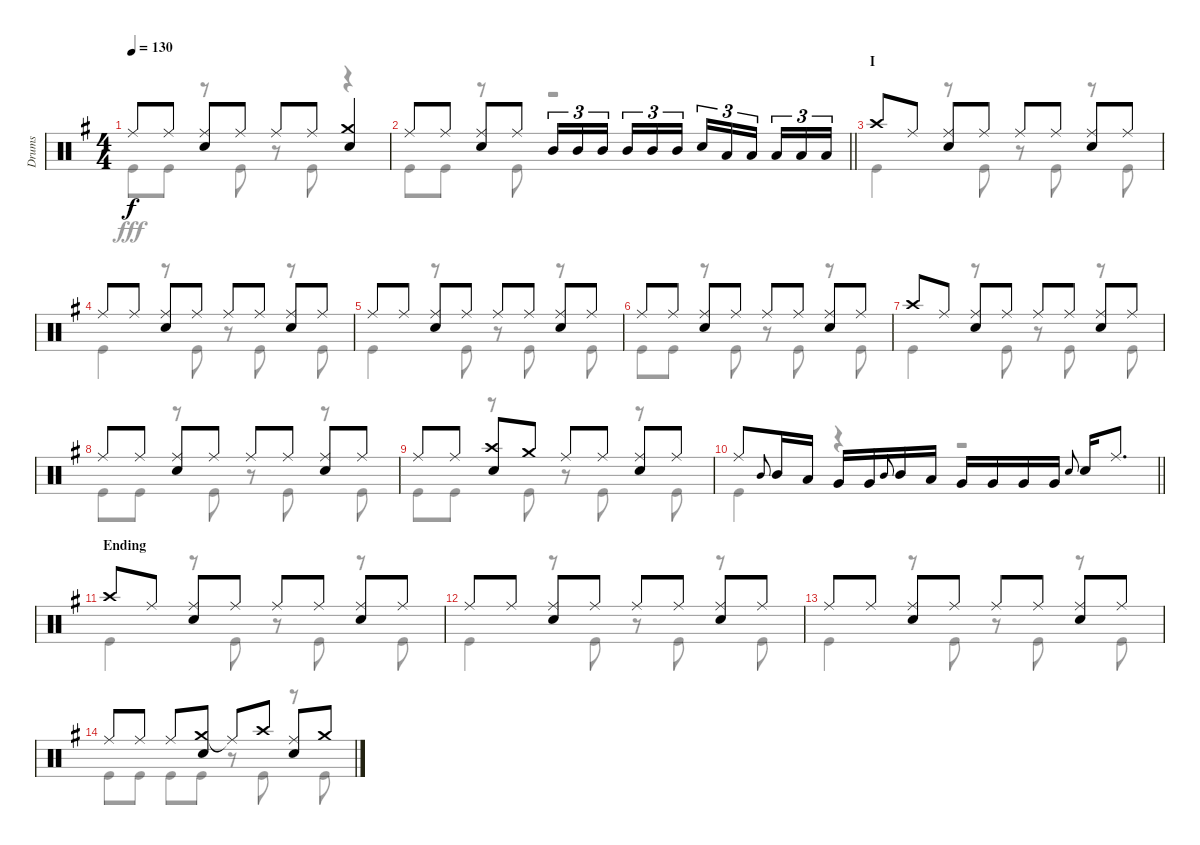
\track ("Drums" "Drums") {instrument percussion}
\staff {score}
\articulation defaults
\voice
\ts (4 4)
\tempo 130
\clef neutral
\ks g "Ride (middle)".8{dy f} "Ride (middle)".8
("Ride (middle)" "Snare (hit) 2").8 "Ride (middle)".8 "Ride (middle)".8 "Ride (middle)".8 ("Crash medium (hit)" "Snare (hit) 2").4 |
\barLineRight lightlight "Ride (middle)".8 "Ride (middle)".8
("Ride (middle)" "Snare (hit) 2").8 "Ride (middle)".8 "Mid Tom (hit)".16{tu (3 2)} "Mid Tom (hit)".16{tu (3 2)} "Mid Tom (hit)".16{tu (3 2) beam splitsecondary} "Mid Tom (hit)".16{tu (3 2)} "Mid Tom (hit)".16{tu (3 2)} "Mid Tom (hit)".16{tu (3 2)} "Snare (hit) 2".16{tu (3 2)} "Low Tom (hit)".16{tu (3 2)} "Low Tom (hit)".16{tu (3 2) beam splitsecondary} "Low Tom (hit)".16{tu (3 2)} "Low Tom (hit)".16{tu (3 2)} "Low Tom (hit)".16{tu (3 2)} |
\section ("" "I")
"Crash high (hit)".8 "Ride (middle)".8 ("Ride (middle)" "Snare (hit) 2").8 "Ride (middle)".8 "Ride (middle)".8 "Ride (middle)".8 ("Ride (middle)" "Snare (hit) 2").8 "Ride (middle)".8 |
"Ride (middle)".8 "Ride (middle)".8 ("Ride (middle)" "Snare (hit) 2").8 "Ride (middle)".8 "Ride (middle)".8 "Ride (middle)".8 ("Ride (middle)" "Snare (hit) 2").8 "Ride (middle)".8 |
"Ride (middle)".8 "Ride (middle)".8 ("Ride (middle)" "Snare (hit) 2").8 "Ride (middle)".8 "Ride (middle)".8 "Ride (middle)".8 ("Ride (middle)" "Snare (hit) 2").8 "Ride (middle)".8 |
"Ride (middle)".8 "Ride (middle)".8 ("Ride (middle)" "Snare (hit) 2").8 "Ride (middle)".8 "Ride (middle)".8 "Ride (middle)".8 ("Ride (middle)" "Snare (hit) 2").8 "Ride (middle)".8 |
"Crash high (hit)".8 "Ride (middle)".8 ("Ride (middle)" "Snare (hit) 2").8 "Ride (middle)".8 "Ride (middle)".8 "Ride (middle)".8 ("Ride (middle)" "Snare (hit) 2").8 "Ride (middle)".8 |
"Ride (middle)".8 "Ride (middle)".8 ("Ride (middle)" "Snare (hit) 2").8 "Ride (middle)".8 "Ride (middle)".8 "Ride (middle)".8 ("Ride (middle)" "Snare (hit) 2").8 "Ride (middle)".8 |
"Ride (middle)".8 "Ride (middle)".8 ("Crash high (hit)" "Snare (hit) 2").8 "Crash medium (hit)".8 "Ride (middle)".8 "Ride (middle)".8 ("Ride (middle)" "Snare (hit) 2").8 "Ride (middle)".8 |
\barLineRight lightlight "Ride (middle)".8 "Mid Tom (hit)".8{gr onbeat} "Mid Tom (hit)".16 "Low Tom (hit)".16 "Very Low Tom (hit)".16 "Very Low Tom (hit)".16 "Mid Tom (hit)".8{gr onbeat} "Mid Tom (hit)".16 "Low Tom (hit)".16 "Very Low Tom (hit)".16 "Very Low Tom (hit)".16 "Very Low Tom (hit)".16 "Very Low Tom (hit)".16 "Snare (hit) 2".8{gr onbeat} "Snare (hit) 2".16 "Ride (middle)".8{d}
|
\section ("" "Ending")
"Crash high (hit)".8 "Ride (middle)".8 ("Ride (middle)" "Snare (hit) 2").8 "Ride (middle)".8 "Ride (middle)".8 "Ride (middle)".8 ("Ride (middle)" "Snare (hit) 2").8 "Ride (middle)".8 |
"Ride (middle)".8 "Ride (middle)".8 ("Ride (middle)" "Snare (hit) 2").8 "Ride (middle)".8 "Ride (middle)".8 "Ride (middle)".8 ("Ride (middle)" "Snare (hit) 2").8 "Ride (middle)".8 |
"Ride (middle)".8 "Ride (middle)".8 ("Ride (middle)" "Snare (hit) 2").8 "Ride (middle)".8 "Ride (middle)".8 "Ride (middle)".8 ("Ride (middle)" "Snare (hit) 2").8 "Ride (middle)".8 |
"Ride (middle)".8 "Ride (middle)".8 "Ride (middle)".8 ("Crash medium (hit)" "Snare (hit) 2").8 "Ride (middle)"{t}.8 "Crash high (hit)".8 ("Ride (middle)" "Snare (hit) 2").8 "Crash medium (hit)".8
\voice
\clef neutral
\ottava regular
\simile none
\ks g "Kick (hit)".8{dy fff} "Kick (hit)".8
r.8 "Kick (hit)".8 r.8 "Kick (hit)".8 r.4 |
\barLineRight lightlight "Kick (hit)".8 "Kick (hit)".8
r.8 "Kick (hit)".8 r.2 |
"Kick (hit)".4 r.8 "Kick (hit)".8 r.8 "Kick (hit)".8 r.8 "Kick (hit)".8 |
"Kick (hit)".4 r.8 "Kick (hit)".8 r.8 "Kick (hit)".8 r.8 "Kick (hit)".8 |
"Kick (hit)".4 r.8 "Kick (hit)".8 r.8 "Kick (hit)".8 r.8 "Kick (hit)".8 |
"Kick (hit)".8 "Kick (hit)".8 r.8 "Kick (hit)".8 r.8 "Kick (hit)".8 r.8 "Kick (hit)".8 |
"Kick (hit)".4 r.8 "Kick (hit)".8 r.8 "Kick (hit)".8 r.8 "Kick (hit)".8 |
"Kick (hit)".8 "Kick (hit)".8 r.8 "Kick (hit)".8 r.8 "Kick (hit)".8 r.8 "Kick (hit)".8 |
"Kick (hit)".8 "Kick (hit)".8 r.8 "Kick (hit)".8 r.8 "Kick (hit)".8 r.8 "Kick (hit)".8 |
\barLineRight lightlight "Kick (hit)".4
r.4 r.2 |
"Kick (hit)".4 r.8 "Kick (hit)".8 r.8 "Kick (hit)".8 r.8 "Kick (hit)".8 |
"Kick (hit)".4 r.8 "Kick (hit)".8 r.8 "Kick (hit)".8 r.8 "Kick (hit)".8 |
"Kick (hit)".4 r.8 "Kick (hit)".8 r.8 "Kick (hit)".8 r.8 "Kick (hit)".8 |
"Kick (hit)".8 "Kick (hit)".8 "Kick (hit)".8 "Kick (hit)".8 r.8 "Kick (hit)".8 r.8 "Kick (hit)".8
